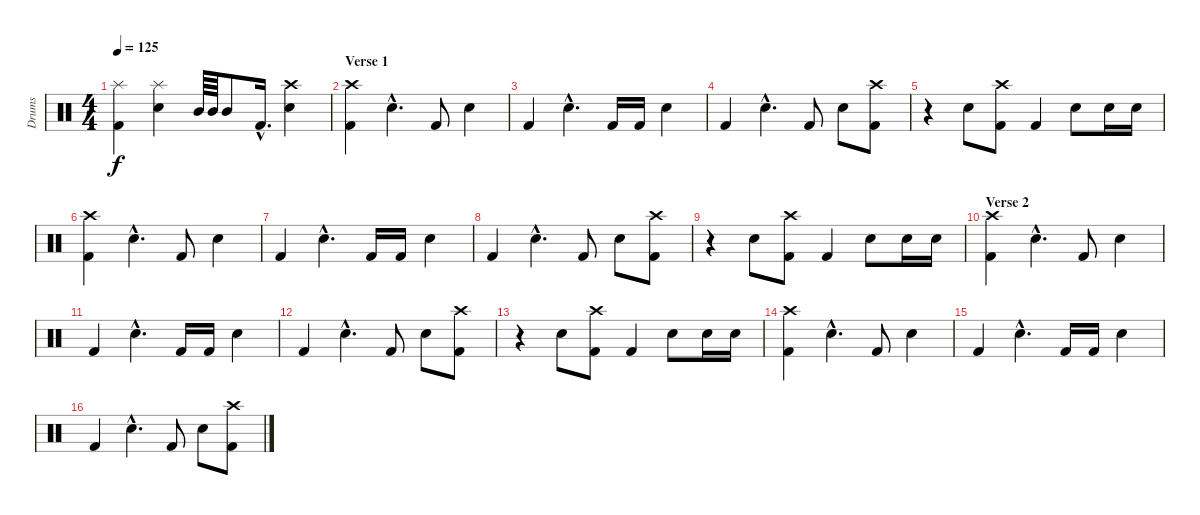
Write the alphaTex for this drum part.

\track ("Drums" "Drums") {instrument percussion}
\staff {score}
\articulation defaults
\ts (4 4)
\tempo 125
\clef neutral
\ks c
("Splash (hit)" "Kick (hit) 2").4{dy f} ("Splash (hit)" "Snare (hit) 2").4 "Mid Tom (hit)".64 "Mid Tom (hit)".64 "Mid Tom (hit)".8 "Kick (hit) 2"{hac}.16{d} ("Snare (hit) 2" "Crash high (hit)").4 |
\section ("" "Verse 1")
("Kick (hit) 2" "Crash high (hit)").4 "Snare (hit) 2"{hac}.4{d} "Kick (hit) 2".8 "Snare (hit) 2".4 |
"Kick (hit) 2".4 "Snare (hit) 2"{hac}.4{d} "Kick (hit) 2".16 "Kick (hit) 2".16 "Snare (hit) 2".4 |
"Kick (hit) 2".4 "Snare (hit) 2"{hac}.4{d} "Kick (hit) 2".8 "Snare (hit) 2".8 ("Crash high (hit)" "Kick (hit) 2").8 |
r.4 "Snare (hit) 2".8 ("Kick (hit) 2" "Crash high (hit)").8 "Kick (hit) 2".4 "Snare (hit) 2".8 "Snare (hit) 2".16 "Snare (hit) 2".16 |
("Kick (hit) 2" "Crash high (hit)").4 "Snare (hit) 2"{hac}.4{d} "Kick (hit) 2".8 "Snare (hit) 2".4 |
"Kick (hit) 2".4 "Snare (hit) 2"{hac}.4{d} "Kick (hit) 2".16 "Kick (hit) 2".16 "Snare (hit) 2".4 |
"Kick (hit) 2".4 "Snare (hit) 2"{hac}.4{d} "Kick (hit) 2".8 "Snare (hit) 2".8 ("Crash high (hit)" "Kick (hit) 2").8 |
r.4 "Snare (hit) 2".8 ("Kick (hit) 2" "Crash high (hit)").8 "Kick (hit) 2".4 "Snare (hit) 2".8 "Snare (hit) 2".16 "Snare (hit) 2".16 |
\section ("" "Verse 2")
("Kick (hit) 2" "Crash high (hit)").4 "Snare (hit) 2"{hac}.4{d} "Kick (hit) 2".8 "Snare (hit) 2".4 |
"Kick (hit) 2".4 "Snare (hit) 2"{hac}.4{d} "Kick (hit) 2".16 "Kick (hit) 2".16 "Snare (hit) 2".4 |
"Kick (hit) 2".4 "Snare (hit) 2"{hac}.4{d} "Kick (hit) 2".8 "Snare (hit) 2".8 ("Crash high (hit)" "Kick (hit) 2").8 |
r.4 "Snare (hit) 2".8 ("Kick (hit) 2" "Crash high (hit)").8 "Kick (hit) 2".4 "Snare (hit) 2".8 "Snare (hit) 2".16 "Snare (hit) 2".16 |
("Kick (hit) 2" "Crash high (hit)").4 "Snare (hit) 2"{hac}.4{d} "Kick (hit) 2".8 "Snare (hit) 2".4 |
"Kick (hit) 2".4 "Snare (hit) 2"{hac}.4{d} "Kick (hit) 2".16 "Kick (hit) 2".16 "Snare (hit) 2".4 |
"Kick (hit) 2".4 "Snare (hit) 2"{hac}.4{d} "Kick (hit) 2".8 "Snare (hit) 2".8 ("Crash high (hit)" "Kick (hit) 2").8
